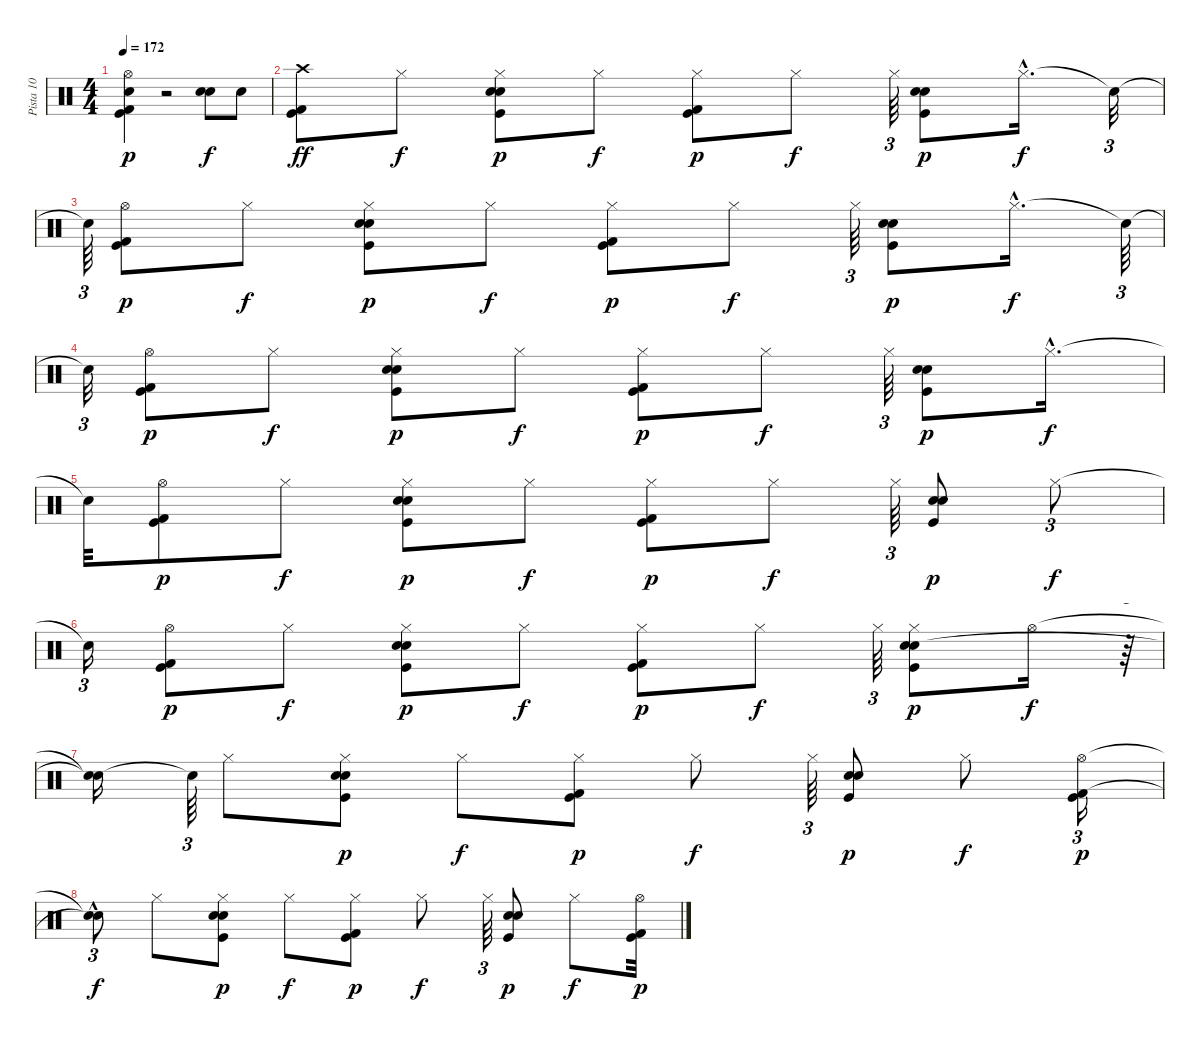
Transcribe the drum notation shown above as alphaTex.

\track ("Pista 10" "Pista 10") {instrument percussion}
\staff {score}
\articulation defaults
\ts (4 4)
\tempo 172
\clef neutral
\ks c
("Hi-Hat (open)" "Kick (hit) 2" "Kick (hit)" "Snare (hit) 2").4{dy p} r.2 ("Electric Snare (hit)" "Snare (hit) 2").8{dy f} "Electric Snare (hit)".8 |
("Kick (hit) 2" "Kick (hit)" "Crash high (hit)").8{dy ff} "Hi-Hat (closed)".8{dy f} ("Hi-Hat (closed)" "Snare (hit) 2" "Electric Snare (hit)" "Kick (hit)").8{dy p} "Hi-Hat (closed)".8{dy f} ("Hi-Hat (closed)" "Kick (hit) 2" "Kick (hit)").8{dy p} "Hi-Hat (closed)".8{dy f} "Hi-Hat (closed)".64{tu (3 2)} ("Snare (hit) 2" "Electric Snare (hit)" "Kick (hit)").8{dy p} "Hi-Hat (closed)"{hac}.16{d dy f} "Snare (hit)"{t}.32{tu (3 2)} |
"Snare (hit)"{t}.64{tu (3 2)} ("Hi-Hat (open)" "Kick (hit) 2" "Kick (hit)").8{dy p} "Hi-Hat (closed)".8{dy f} ("Hi-Hat (closed)" "Snare (hit) 2" "Electric Snare (hit)" "Kick (hit)").8{dy p} "Hi-Hat (closed)".8{dy f} ("Hi-Hat (closed)" "Kick (hit) 2" "Kick (hit)").8{dy p} "Hi-Hat (closed)".8{dy f} "Hi-Hat (closed)".64{tu (3 2)} ("Snare (hit) 2" "Electric Snare (hit)" "Kick (hit)").8{dy p} "Hi-Hat (closed)"{hac}.16{d dy f} "Snare (hit)"{t}.64{tu (3 2)} |
"Snare (hit)"{t}.32{tu (3 2)} ("Hi-Hat (open)" "Kick (hit) 2" "Kick (hit)").8{dy p} "Hi-Hat (closed)".8{dy f} ("Hi-Hat (closed)" "Snare (hit) 2" "Electric Snare (hit)" "Kick (hit)").8{dy p} "Hi-Hat (closed)".8{dy f} ("Hi-Hat (closed)" "Kick (hit) 2" "Kick (hit)").8{dy p} "Hi-Hat (closed)".8{dy f} "Hi-Hat (closed)".64{tu (3 2)} ("Snare (hit) 2" "Electric Snare (hit)" "Kick (hit)").8{dy p} "Hi-Hat (closed)"{hac}.16{d dy f} |
"Snare (hit)"{t}.32 ("Hi-Hat (open)" "Kick (hit) 2" "Kick (hit)").8{dy p} "Hi-Hat (closed)".8{dy f} ("Hi-Hat (closed)" "Snare (hit) 2" "Electric Snare (hit)" "Kick (hit)").8{dy p} "Hi-Hat (closed)".8{dy f} ("Hi-Hat (closed)" "Kick (hit) 2" "Kick (hit)").8{dy p} "Hi-Hat (closed)".8{dy f} "Hi-Hat (closed)".64{tu (3 2)} ("Snare (hit) 2" "Electric Snare (hit)" "Kick (hit)").8{dy p} "Hi-Hat (closed)".8{tu (3 2) dy f} |
"Snare (hit)"{t}.16{tu (3 2)} ("Hi-Hat (open)" "Kick (hit) 2" "Kick (hit)").8{dy p} "Hi-Hat (closed)".8{dy f} ("Hi-Hat (closed)" "Snare (hit) 2" "Electric Snare (hit)" "Kick (hit)").8{dy p} "Hi-Hat (closed)".8{dy f} ("Hi-Hat (closed)" "Kick (hit) 2" "Kick (hit)").8{dy p} "Hi-Hat (closed)".8{dy f} "Hi-Hat (closed)".64{tu (3 2)} ("Snare (hit) 2" "Electric Snare (hit)" "Kick (hit)" "Hi-Hat (closed)").8{dy p} "Hi-Hat (open)".16{dy f} r.64{tu (3 2)} |
("Snare (hit)"{t} "Snare (hit)"{t}).16 "Snare (hit)"{t}.64{tu (3 2)} "Hi-Hat (closed)".8 ("Hi-Hat (closed)" "Snare (hit) 2" "Electric Snare (hit)" "Kick (hit)").8{dy p} "Hi-Hat (closed)".8{dy f} ("Hi-Hat (closed)" "Kick (hit) 2" "Kick (hit)").8{dy p} "Hi-Hat (closed)".8{dy f} "Hi-Hat (closed)".64{tu (3 2)} ("Snare (hit) 2" "Electric Snare (hit)" "Kick (hit)").8{dy p} "Hi-Hat (closed)".8{dy f} ("Hi-Hat (open)" "Kick (hit) 2" "Kick (hit)").16{tu (3 2) dy p} |
("Snare (hit)"{t} "Snare (hit)"{hac t}).8{tu (3 2) dy f} "Hi-Hat (closed)".8 ("Hi-Hat (closed)" "Snare (hit) 2" "Electric Snare (hit)" "Kick (hit)").8{dy p} "Hi-Hat (closed)".8{dy f} ("Hi-Hat (closed)" "Kick (hit) 2" "Kick (hit)").8{dy p} "Hi-Hat (closed)".8{dy f} "Hi-Hat (closed)".64{tu (3 2)} ("Snare (hit) 2" "Electric Snare (hit)" "Kick (hit)").8{dy p} "Hi-Hat (closed)".8{dy f} ("Hi-Hat (open)" "Kick (hit) 2" "Kick (hit)").32{dy p}
